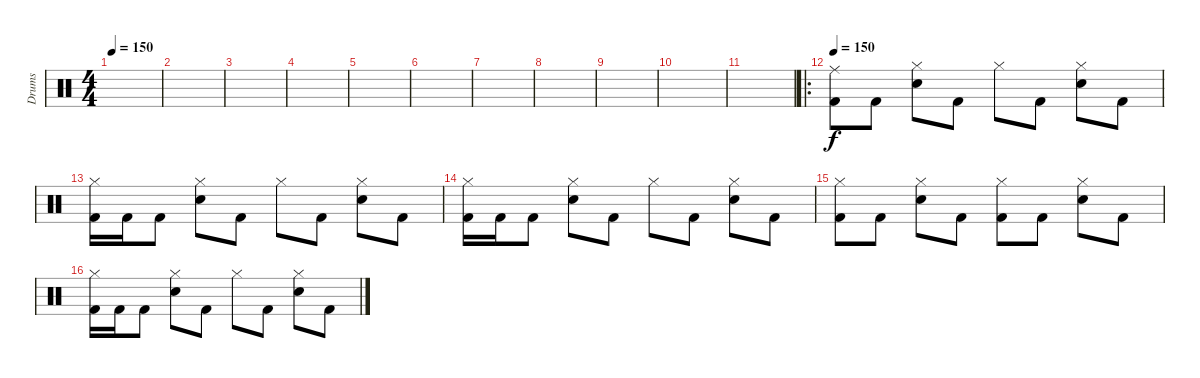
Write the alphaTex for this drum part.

\track ("Drums" "Drums") {instrument percussion}
\staff {score}
\articulation defaults
\ts (4 4)
\tempo 150
\clef neutral
\ks c
|
|
|
|
|
|
|
|
|
|
|
\ro
\tempo 150
("Ride (middle)" "Kick (hit) 2").8 "Kick (hit) 2".8 ("Hi-Hat (closed)" "Electric Snare (hit)").8 "Kick (hit) 2".8 "Hi-Hat (closed)".8 "Kick (hit) 2".8 ("Hi-Hat (closed)" "Electric Snare (hit)").8 "Kick (hit) 2".8 |
("Hi-Hat (closed)" "Kick (hit) 2").16 "Kick (hit) 2".16 "Kick (hit) 2".8 ("Hi-Hat (closed)" "Electric Snare (hit)").8 "Kick (hit) 2".8 "Hi-Hat (closed)".8 "Kick (hit) 2".8 ("Hi-Hat (closed)" "Electric Snare (hit)").8 "Kick (hit) 2".8 |
("Hi-Hat (closed)" "Kick (hit) 2").16 "Kick (hit) 2".16 "Kick (hit) 2".8 ("Hi-Hat (closed)" "Electric Snare (hit)").8 "Kick (hit) 2".8 "Hi-Hat (closed)".8 "Kick (hit) 2".8 ("Hi-Hat (closed)" "Electric Snare (hit)").8 "Kick (hit) 2".8 |
("Hi-Hat (closed)" "Kick (hit) 2").8 "Kick (hit) 2".8 ("Hi-Hat (closed)" "Electric Snare (hit)").8 "Kick (hit) 2".8 ("Hi-Hat (closed)" "Kick (hit) 2").8 "Kick (hit) 2".8 ("Hi-Hat (closed)" "Electric Snare (hit)").8 "Kick (hit) 2".8 |
("Hi-Hat (closed)" "Kick (hit) 2").16 "Kick (hit) 2".16 "Kick (hit) 2".8 ("Hi-Hat (closed)" "Electric Snare (hit)").8 "Kick (hit) 2".8 "Hi-Hat (closed)".8 "Kick (hit) 2".8 ("Hi-Hat (closed)" "Electric Snare (hit)").8 "Kick (hit) 2".8
